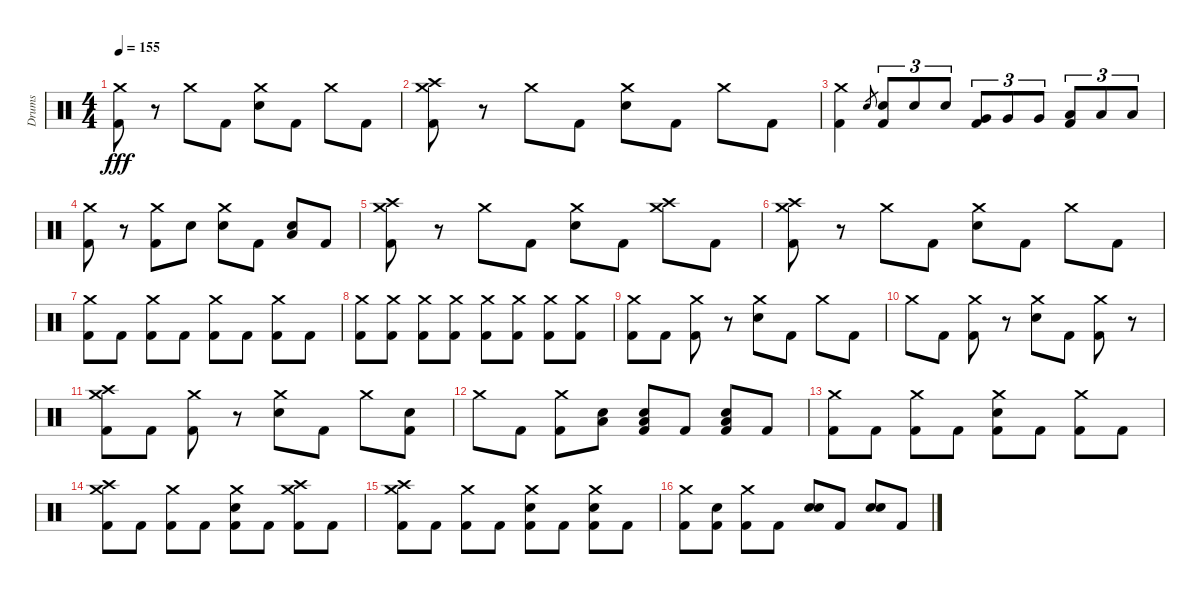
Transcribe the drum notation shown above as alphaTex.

\track ("Drums" "Drums") {instrument percussion}
\staff {score}
\articulation defaults
\ts (4 4)
\tempo 155
\clef neutral
\ks c
("Crash medium (hit)" "Kick (hit) 2").8{dy fff} r.8 "Crash medium (hit)".8 "Kick (hit) 2".8 ("Crash medium (hit)" "Electric Snare (hit)").8 "Kick (hit) 2".8 "Crash medium (hit)".8 "Kick (hit) 2".8 |
("Crash high (hit)" "Crash medium (hit)" "Kick (hit) 2").8 r.8 "Crash medium (hit)".8 "Kick (hit) 2".8 ("Crash medium (hit)" "Electric Snare (hit)").8 "Kick (hit) 2".8 "Crash medium (hit)".8 "Kick (hit) 2".8 |
("Crash medium (hit)" "Kick (hit) 2").4 "Electric Snare (hit)".8{gr} ("Electric Snare (hit)" "Kick (hit) 2").8{tu (3 2)} "Electric Snare (hit)".8{tu (3 2)} "Electric Snare (hit)".8{tu (3 2)} ("Very Low Tom (hit)" "Kick (hit) 2").8{tu (3 2)} "Very Low Tom (hit)".8{tu (3 2)} "Very Low Tom (hit)".8{tu (3 2)} ("Low Floor Tom (hit)" "Kick (hit) 2").8{tu (3 2)} "Low Floor Tom (hit)".8{tu (3 2)} "Low Floor Tom (hit)".8{tu (3 2)} |
("Crash medium (hit)" "Kick (hit) 2").8 r.8 ("Crash medium (hit)" "Kick (hit) 2").8 "Electric Snare (hit)".8 ("Crash medium (hit)" "Electric Snare (hit)").8 "Kick (hit) 2".8 ("Low Floor Tom (hit)" "Electric Snare (hit)").8 "Kick (hit) 2".8 |
("Crash high (hit)" "Crash medium (hit)" "Kick (hit) 2").8 r.8 "Crash medium (hit)".8 "Kick (hit) 2".8 ("Crash medium (hit)" "Electric Snare (hit)").8 "Kick (hit) 2".8 ("Crash high (hit)" "Crash medium (hit)").8 "Kick (hit) 2".8 |
("Crash high (hit)" "Crash medium (hit)" "Kick (hit) 2").8 r.8 "Crash medium (hit)".8 "Kick (hit) 2".8 ("Crash medium (hit)" "Electric Snare (hit)").8 "Kick (hit) 2".8 "Crash medium (hit)".8 "Kick (hit) 2".8 |
("Crash medium (hit)" "Kick (hit) 2").8 "Kick (hit) 2".8 ("Crash medium (hit)" "Kick (hit) 2").8 "Kick (hit) 2".8 ("Crash medium (hit)" "Kick (hit) 2").8 "Kick (hit) 2".8 ("Crash medium (hit)" "Kick (hit) 2").8 "Kick (hit) 2".8 |
("Crash medium (hit)" "Kick (hit) 2").8 ("Crash medium (hit)" "Kick (hit) 2").8 ("Crash medium (hit)" "Kick (hit) 2").8 ("Crash medium (hit)" "Kick (hit) 2").8 ("Crash medium (hit)" "Kick (hit) 2").8 ("Crash medium (hit)" "Kick (hit) 2").8 ("Crash medium (hit)" "Kick (hit) 2").8 ("Crash medium (hit)" "Kick (hit) 2").8 |
("Crash medium (hit)" "Kick (hit) 2").8 "Kick (hit) 2".8 ("Crash medium (hit)" "Kick (hit) 2").8 r.8 ("Crash medium (hit)" "Electric Snare (hit)").8 "Kick (hit) 2".8 "Crash medium (hit)".8 "Kick (hit) 2".8 |
"Crash medium (hit)".8 "Kick (hit) 2".8 ("Crash medium (hit)" "Kick (hit) 2").8 r.8 ("Crash medium (hit)" "Electric Snare (hit)").8 "Kick (hit) 2".8 ("Crash medium (hit)" "Kick (hit) 2").8 r.8 |
("Crash high (hit)" "Crash medium (hit)" "Kick (hit) 2").8 "Kick (hit) 2".8 ("Crash medium (hit)" "Kick (hit) 2").8 r.8 ("Crash medium (hit)" "Electric Snare (hit)").8 "Kick (hit) 2".8 "Crash medium (hit)".8 ("Electric Snare (hit)" "Kick (hit) 2").8 |
"Crash medium (hit)".8 "Kick (hit) 2".8 ("Crash medium (hit)" "Kick (hit) 2").8 ("Low Floor Tom (hit)" "Electric Snare (hit)").8 ("Low Floor Tom (hit)" "Electric Snare (hit)" "Kick (hit) 2").8 "Kick (hit) 2".8 ("Low Floor Tom (hit)" "Electric Snare (hit)" "Kick (hit) 2").8 "Kick (hit) 2".8 |
("Crash medium (hit)" "Kick (hit) 2").8 "Kick (hit) 2".8 ("Crash medium (hit)" "Kick (hit) 2").8 "Kick (hit) 2".8 ("Crash medium (hit)" "Electric Snare (hit)" "Kick (hit) 2").8 "Kick (hit) 2".8 ("Crash medium (hit)" "Kick (hit) 2").8 "Kick (hit) 2".8 |
("Crash high (hit)" "Crash medium (hit)" "Kick (hit) 2").8 "Kick (hit) 2".8 ("Crash medium (hit)" "Kick (hit) 2").8 "Kick (hit) 2".8 ("Crash medium (hit)" "Electric Snare (hit)" "Kick (hit) 2").8 "Kick (hit) 2".8 ("Crash high (hit)" "Crash medium (hit)" "Kick (hit) 2").8 "Kick (hit) 2".8 |
("Crash high (hit)" "Crash medium (hit)" "Kick (hit) 2").8 "Kick (hit) 2".8 ("Crash medium (hit)" "Kick (hit) 2").8 "Kick (hit) 2".8 ("Crash medium (hit)" "Electric Snare (hit)" "Kick (hit) 2").8 "Kick (hit) 2".8 ("Crash medium (hit)" "Electric Snare (hit)" "Kick (hit) 2").8 "Kick (hit) 2".8 |
("Crash medium (hit)" "Kick (hit) 2").8 ("Electric Snare (hit)" "Kick (hit) 2").8 ("Crash medium (hit)" "Kick (hit) 2").8 "Kick (hit) 2".8 ("Electric Snare (hit)" "Electric Snare (hit)").8 "Kick (hit) 2".8 ("Electric Snare (hit)" "Electric Snare (hit)").8 "Kick (hit) 2".8
